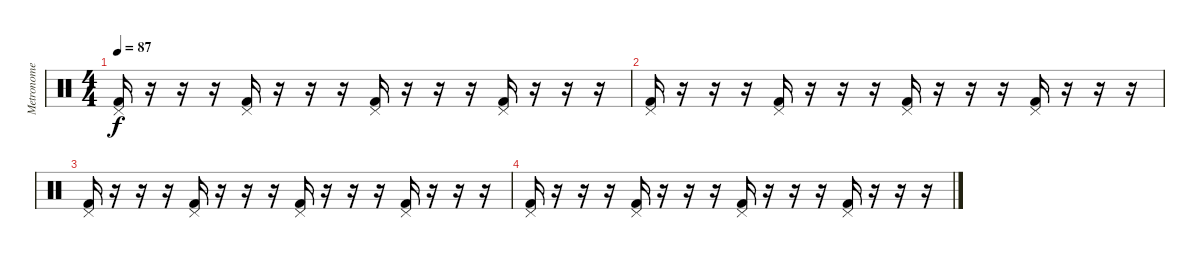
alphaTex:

\track ("Metronome" "Metronome") {mute instrument percussion}
\staff {score}
\articulation defaults
\ts (4 4)
\tempo 87
\clef neutral
\ks c
("Pedal Hi-Hat (hit)" "Kick (hit) 2").16{dy f} r.16 r.16 r.16 ("Pedal Hi-Hat (hit)" "Kick (hit) 2").16 r.16 r.16 r.16 ("Pedal Hi-Hat (hit)" "Kick (hit) 2").16 r.16 r.16 r.16 ("Pedal Hi-Hat (hit)" "Kick (hit) 2").16 r.16 r.16 r.16 |
("Pedal Hi-Hat (hit)" "Kick (hit) 2").16 r.16 r.16 r.16 ("Pedal Hi-Hat (hit)" "Kick (hit) 2").16 r.16 r.16 r.16 ("Pedal Hi-Hat (hit)" "Kick (hit) 2").16 r.16 r.16 r.16 ("Pedal Hi-Hat (hit)" "Kick (hit) 2").16 r.16 r.16 r.16 |
("Pedal Hi-Hat (hit)" "Kick (hit) 2").16 r.16 r.16 r.16 ("Pedal Hi-Hat (hit)" "Kick (hit) 2").16 r.16 r.16 r.16 ("Pedal Hi-Hat (hit)" "Kick (hit) 2").16 r.16 r.16 r.16 ("Pedal Hi-Hat (hit)" "Kick (hit) 2").16 r.16 r.16 r.16 |
("Pedal Hi-Hat (hit)" "Kick (hit) 2").16 r.16 r.16 r.16 ("Pedal Hi-Hat (hit)" "Kick (hit) 2").16 r.16 r.16 r.16 ("Pedal Hi-Hat (hit)" "Kick (hit) 2").16 r.16 r.16 r.16 ("Pedal Hi-Hat (hit)" "Kick (hit) 2").16 r.16 r.16 r.16
